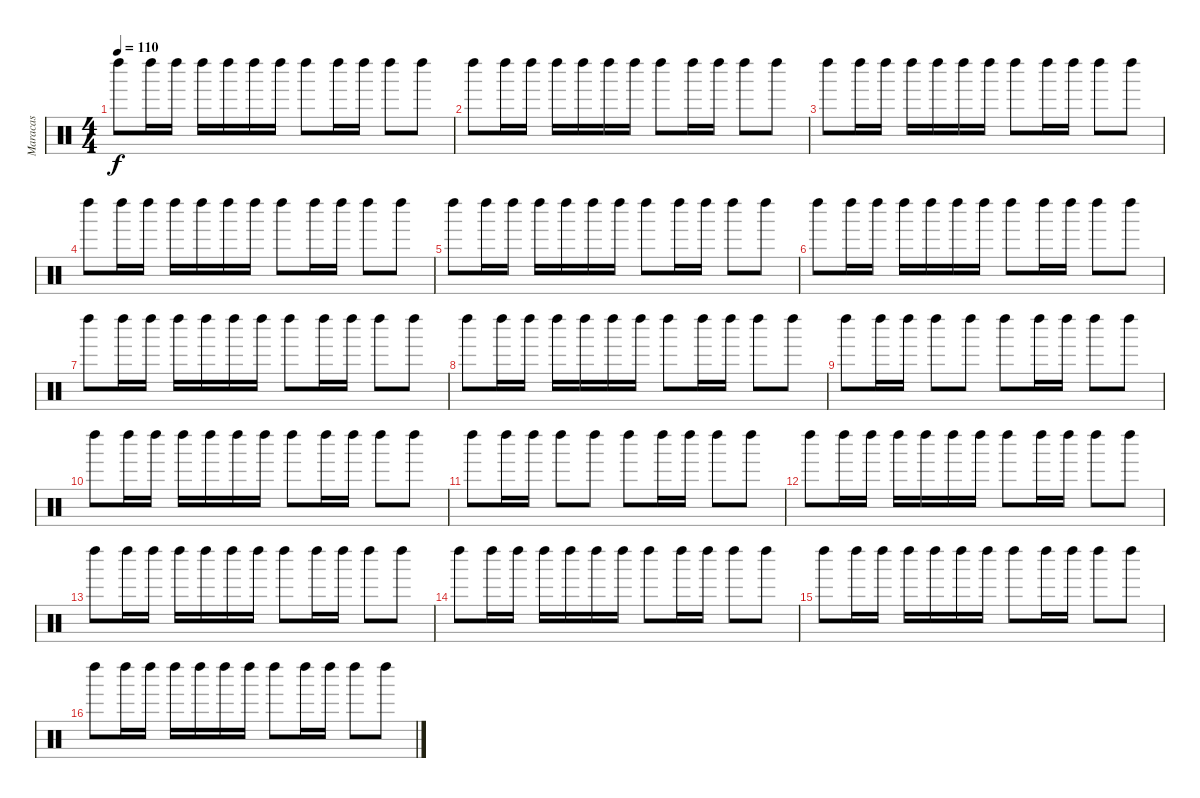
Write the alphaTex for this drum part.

\track ("Maracas" "Maracas") {instrument percussion}
\staff {score}
\articulation defaults
\ts (4 4)
\tempo 110
\clef neutral
\ks c "Left Maraca (hit)".8{dy f} "Left Maraca (hit)".16 "Left Maraca (hit)".16 "Left Maraca (hit)".16 "Left Maraca (hit)".16 "Left Maraca (hit)".16 "Left Maraca (hit)".16 "Left Maraca (hit)".8 "Left Maraca (hit)".16 "Left Maraca (hit)".16 "Left Maraca (hit)".8 "Left Maraca (hit)".8
|
"Left Maraca (hit)".8 "Left Maraca (hit)".16 "Left Maraca (hit)".16 "Left Maraca (hit)".16 "Left Maraca (hit)".16 "Left Maraca (hit)".16 "Left Maraca (hit)".16 "Left Maraca (hit)".8 "Left Maraca (hit)".16 "Left Maraca (hit)".16 "Left Maraca (hit)".8 "Left Maraca (hit)".8 |
"Left Maraca (hit)".8 "Left Maraca (hit)".16 "Left Maraca (hit)".16 "Left Maraca (hit)".16 "Left Maraca (hit)".16 "Left Maraca (hit)".16 "Left Maraca (hit)".16 "Left Maraca (hit)".8 "Left Maraca (hit)".16 "Left Maraca (hit)".16 "Left Maraca (hit)".8 "Left Maraca (hit)".8 |
"Left Maraca (hit)".8 "Left Maraca (hit)".16 "Left Maraca (hit)".16 "Left Maraca (hit)".16 "Left Maraca (hit)".16 "Left Maraca (hit)".16 "Left Maraca (hit)".16 "Left Maraca (hit)".8 "Left Maraca (hit)".16 "Left Maraca (hit)".16 "Left Maraca (hit)".8 "Left Maraca (hit)".8 |
"Left Maraca (hit)".8 "Left Maraca (hit)".16 "Left Maraca (hit)".16 "Left Maraca (hit)".16 "Left Maraca (hit)".16 "Left Maraca (hit)".16 "Left Maraca (hit)".16 "Left Maraca (hit)".8 "Left Maraca (hit)".16 "Left Maraca (hit)".16 "Left Maraca (hit)".8 "Left Maraca (hit)".8 |
"Left Maraca (hit)".8 "Left Maraca (hit)".16 "Left Maraca (hit)".16 "Left Maraca (hit)".16 "Left Maraca (hit)".16 "Left Maraca (hit)".16 "Left Maraca (hit)".16 "Left Maraca (hit)".8 "Left Maraca (hit)".16 "Left Maraca (hit)".16 "Left Maraca (hit)".8 "Left Maraca (hit)".8 |
"Left Maraca (hit)".8 "Left Maraca (hit)".16 "Left Maraca (hit)".16 "Left Maraca (hit)".16 "Left Maraca (hit)".16 "Left Maraca (hit)".16 "Left Maraca (hit)".16 "Left Maraca (hit)".8 "Left Maraca (hit)".16 "Left Maraca (hit)".16 "Left Maraca (hit)".8 "Left Maraca (hit)".8 |
"Left Maraca (hit)".8 "Left Maraca (hit)".16 "Left Maraca (hit)".16 "Left Maraca (hit)".16 "Left Maraca (hit)".16 "Left Maraca (hit)".16 "Left Maraca (hit)".16 "Left Maraca (hit)".8 "Left Maraca (hit)".16 "Left Maraca (hit)".16 "Left Maraca (hit)".8 "Left Maraca (hit)".8 |
"Left Maraca (hit)".8 "Left Maraca (hit)".16 "Left Maraca (hit)".16 "Left Maraca (hit)".8 "Left Maraca (hit)".8 "Left Maraca (hit)".8 "Left Maraca (hit)".16 "Left Maraca (hit)".16 "Left Maraca (hit)".8 "Left Maraca (hit)".8 |
"Left Maraca (hit)".8 "Left Maraca (hit)".16 "Left Maraca (hit)".16 "Left Maraca (hit)".16 "Left Maraca (hit)".16 "Left Maraca (hit)".16 "Left Maraca (hit)".16 "Left Maraca (hit)".8 "Left Maraca (hit)".16 "Left Maraca (hit)".16 "Left Maraca (hit)".8 "Left Maraca (hit)".8 |
"Left Maraca (hit)".8 "Left Maraca (hit)".16 "Left Maraca (hit)".16 "Left Maraca (hit)".8 "Left Maraca (hit)".8 "Left Maraca (hit)".8 "Left Maraca (hit)".16 "Left Maraca (hit)".16 "Left Maraca (hit)".8 "Left Maraca (hit)".8 |
"Left Maraca (hit)".8 "Left Maraca (hit)".16 "Left Maraca (hit)".16 "Left Maraca (hit)".16 "Left Maraca (hit)".16 "Left Maraca (hit)".16 "Left Maraca (hit)".16 "Left Maraca (hit)".8 "Left Maraca (hit)".16 "Left Maraca (hit)".16 "Left Maraca (hit)".8 "Left Maraca (hit)".8 |
"Left Maraca (hit)".8 "Left Maraca (hit)".16 "Left Maraca (hit)".16 "Left Maraca (hit)".16 "Left Maraca (hit)".16 "Left Maraca (hit)".16 "Left Maraca (hit)".16 "Left Maraca (hit)".8 "Left Maraca (hit)".16 "Left Maraca (hit)".16 "Left Maraca (hit)".8 "Left Maraca (hit)".8 |
"Left Maraca (hit)".8 "Left Maraca (hit)".16 "Left Maraca (hit)".16 "Left Maraca (hit)".16 "Left Maraca (hit)".16 "Left Maraca (hit)".16 "Left Maraca (hit)".16 "Left Maraca (hit)".8 "Left Maraca (hit)".16 "Left Maraca (hit)".16 "Left Maraca (hit)".8 "Left Maraca (hit)".8 |
"Left Maraca (hit)".8 "Left Maraca (hit)".16 "Left Maraca (hit)".16 "Left Maraca (hit)".16 "Left Maraca (hit)".16 "Left Maraca (hit)".16 "Left Maraca (hit)".16 "Left Maraca (hit)".8 "Left Maraca (hit)".16 "Left Maraca (hit)".16 "Left Maraca (hit)".8 "Left Maraca (hit)".8 |
"Left Maraca (hit)".8 "Left Maraca (hit)".16 "Left Maraca (hit)".16 "Left Maraca (hit)".16 "Left Maraca (hit)".16 "Left Maraca (hit)".16 "Left Maraca (hit)".16 "Left Maraca (hit)".8 "Left Maraca (hit)".16 "Left Maraca (hit)".16 "Left Maraca (hit)".8 "Left Maraca (hit)".8
